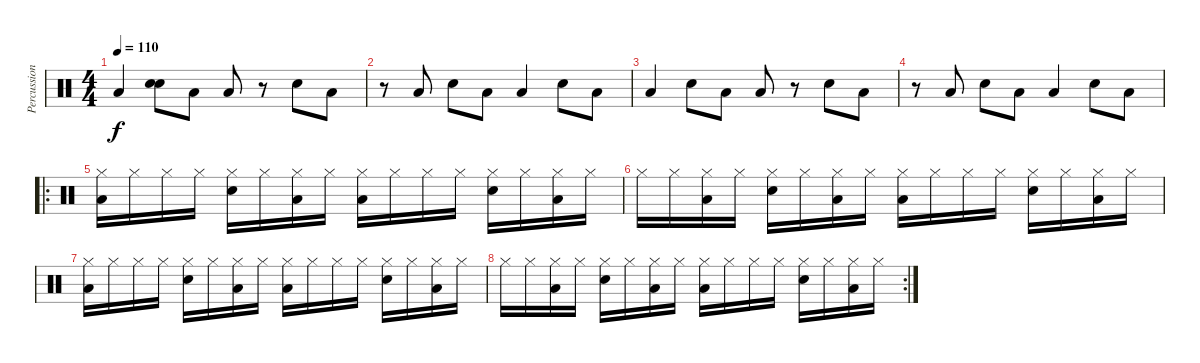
\track ("Percussion" "Percussion") {instrument percussion}
\staff {score}
\articulation defaults
\ts (4 4)
\tempo 110
\clef neutral
\ks c "Low Tom (hit)".4{dy f}
("Hand Clap (hit)" "Hand Clap (hit)").8 "Low Tom (hit)".8 "Low Tom (hit)".8 r.8 "Hand Clap (hit)".8 "Low Tom (hit)".8 |
r.8 "Low Tom (hit)".8 "Hand Clap (hit)".8 "Low Tom (hit)".8 "Low Tom (hit)".4 "Hand Clap (hit)".8 "Low Tom (hit)".8 |
"Low Tom (hit)".4 "Hand Clap (hit)".8 "Low Tom (hit)".8 "Low Tom (hit)".8 r.8 "Electric Snare (hit)".8 "Low Tom (hit)".8 |
r.8 "Low Tom (hit)".8 "Hand Clap (hit)".8 "Low Tom (hit)".8 "Low Tom (hit)".4 "Hand Clap (hit)".8 "Low Tom (hit)".8 |
\ro
("Hi-Hat (closed)" "Low Tom (hit)").16 "Hi-Hat (closed)".16 "Hi-Hat (closed)".16 "Hi-Hat (closed)".16 ("Hi-Hat (closed)" "Electric Snare (hit)").16 "Hi-Hat (closed)".16 ("Hi-Hat (closed)" "Low Tom (hit)").16 "Hi-Hat (closed)".16 ("Hi-Hat (closed)" "Low Tom (hit)").16 "Hi-Hat (closed)".16 "Hi-Hat (closed)".16 "Hi-Hat (closed)".16 ("Hi-Hat (closed)" "Electric Snare (hit)").16 "Hi-Hat (closed)".16 ("Hi-Hat (closed)" "Low Tom (hit)").16 "Hi-Hat (closed)".16 |
"Hi-Hat (closed)".16 "Hi-Hat (closed)".16 ("Hi-Hat (closed)" "Low Tom (hit)").16 "Hi-Hat (closed)".16 ("Hi-Hat (closed)" "Electric Snare (hit)").16 "Hi-Hat (closed)".16 ("Hi-Hat (closed)" "Low Tom (hit)").16 "Hi-Hat (closed)".16 ("Hi-Hat (closed)" "Low Tom (hit)").16 "Hi-Hat (closed)".16 "Hi-Hat (closed)".16 "Hi-Hat (closed)".16 ("Hi-Hat (closed)" "Electric Snare (hit)").16 "Hi-Hat (closed)".16 ("Hi-Hat (closed)" "Low Tom (hit)").16 "Hi-Hat (closed)".16 |
("Hi-Hat (closed)" "Low Tom (hit)").16 "Hi-Hat (closed)".16 "Hi-Hat (closed)".16 "Hi-Hat (closed)".16 ("Hi-Hat (closed)" "Electric Snare (hit)").16 "Hi-Hat (closed)".16 ("Hi-Hat (closed)" "Low Tom (hit)").16 "Hi-Hat (closed)".16 ("Hi-Hat (closed)" "Low Tom (hit)").16 "Hi-Hat (closed)".16 "Hi-Hat (closed)".16 "Hi-Hat (closed)".16 ("Hi-Hat (closed)" "Electric Snare (hit)").16 "Hi-Hat (closed)".16 ("Hi-Hat (closed)" "Low Tom (hit)").16 "Hi-Hat (closed)".16 |
\rc 2 "Hi-Hat (closed)".16 "Hi-Hat (closed)".16
("Hi-Hat (closed)" "Low Tom (hit)").16 "Hi-Hat (closed)".16 ("Hi-Hat (closed)" "Electric Snare (hit)").16 "Hi-Hat (closed)".16 ("Hi-Hat (closed)" "Low Tom (hit)").16 "Hi-Hat (closed)".16 ("Hi-Hat (closed)" "Low Tom (hit)").16 "Hi-Hat (closed)".16 "Hi-Hat (closed)".16 "Hi-Hat (closed)".16 ("Hi-Hat (closed)" "Electric Snare (hit)").16 "Hi-Hat (closed)".16 ("Hi-Hat (closed)" "Low Tom (hit)").16 "Hi-Hat (closed)".16
